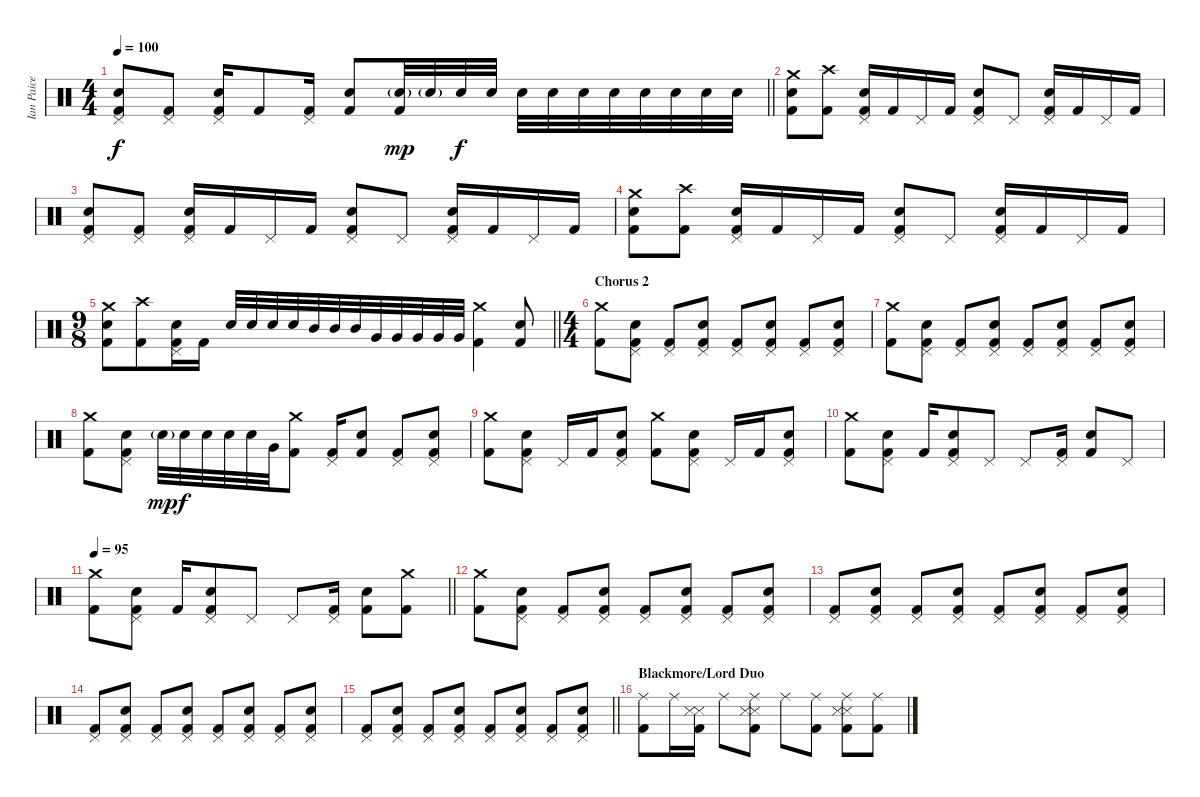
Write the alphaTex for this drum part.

\track ("Ian Paice - Drums" "Ian Paice ") {instrument percussion}
\staff {score}
\articulation defaults
\ts (4 4)
\tempo 100
\clef neutral
\barLineRight lightlight
\ks c
("Kick (hit) 2" "Pedal Hi-Hat (hit)" "Electric Snare (hit)").8{dy f} ("Kick (hit) 2" "Pedal Hi-Hat (hit)").8 ("Kick (hit) 2" "Pedal Hi-Hat (hit)" "Electric Snare (hit)").16 "Kick (hit) 2".8 ("Kick (hit) 2" "Pedal Hi-Hat (hit)").16 ("Kick (hit) 2" "Electric Snare (hit)").8 ("Kick (hit) 2" "Electric Snare (hit)"{g}).32{dy mp} "Electric Snare (hit)"{g}.32 "Electric Snare (hit)".32{dy f} "Electric Snare (hit)".32 "Electric Snare (hit)".32 "Electric Snare (hit)".32 "Electric Snare (hit)".32 "Electric Snare (hit)".32 "Electric Snare (hit)".32 "Electric Snare (hit)".32 "Electric Snare (hit)".32 "Electric Snare (hit)".32 |
("Kick (hit) 2" "Crash medium (hit)" "Electric Snare (hit)").8 ("Kick (hit) 2" "Crash high (hit)").8 ("Kick (hit) 2" "Pedal Hi-Hat (hit)" "Electric Snare (hit)").16 "Kick (hit) 2".16 "Pedal Hi-Hat (hit)".16 "Kick (hit) 2".16 ("Kick (hit) 2" "Pedal Hi-Hat (hit)" "Electric Snare (hit)").8 "Pedal Hi-Hat (hit)".8 ("Kick (hit) 2" "Pedal Hi-Hat (hit)" "Electric Snare (hit)").16 "Kick (hit) 2".16 "Pedal Hi-Hat (hit)".16 "Kick (hit) 2".16 |
("Kick (hit) 2" "Pedal Hi-Hat (hit)" "Electric Snare (hit)").8 ("Kick (hit) 2" "Pedal Hi-Hat (hit)").8 ("Kick (hit) 2" "Pedal Hi-Hat (hit)" "Electric Snare (hit)").16 "Kick (hit) 2".16 "Pedal Hi-Hat (hit)".16 "Kick (hit) 2".16 ("Kick (hit) 2" "Pedal Hi-Hat (hit)" "Electric Snare (hit)").8 "Pedal Hi-Hat (hit)".8 ("Kick (hit) 2" "Pedal Hi-Hat (hit)" "Electric Snare (hit)").16 "Kick (hit) 2".16 "Pedal Hi-Hat (hit)".16 "Kick (hit) 2".16 |
("Kick (hit) 2" "Crash medium (hit)" "Electric Snare (hit)").8 ("Kick (hit) 2" "Crash high (hit)").8 ("Kick (hit) 2" "Pedal Hi-Hat (hit)" "Electric Snare (hit)").16 "Kick (hit) 2".16 "Pedal Hi-Hat (hit)".16 "Kick (hit) 2".16 ("Kick (hit) 2" "Pedal Hi-Hat (hit)" "Electric Snare (hit)").8 "Pedal Hi-Hat (hit)".8 ("Kick (hit) 2" "Pedal Hi-Hat (hit)" "Electric Snare (hit)").16 "Kick (hit) 2".16 "Pedal Hi-Hat (hit)".16 "Kick (hit) 2".16 |
\ts (9 8)
\barLineRight lightlight
("Kick (hit) 2" "Crash medium (hit)" "Electric Snare (hit)").8 ("Kick (hit) 2" "Crash high (hit)").8 ("Kick (hit) 2" "Pedal Hi-Hat (hit)" "Electric Snare (hit)").16 "Kick (hit) 2".16 "Electric Snare (hit)".32 "Electric Snare (hit)".32 "Electric Snare (hit)".32 "Electric Snare (hit)".32 "Mid Tom (hit)".32 "Mid Tom (hit)".32 "Mid Tom (hit)".32 "Very Low Tom (hit)".32 "Very Low Tom (hit)".32 "Very Low Tom (hit)".32 "Very Low Tom (hit)".32 "Very Low Tom (hit)".32 ("Kick (hit) 2" "Crash medium (hit)").4 ("Kick (hit) 2" "Electric Snare (hit)").8 |
\ts (4 4)
\section ("" "Chorus 2")
("Kick (hit) 2" "Crash medium (hit)").8 ("Kick (hit) 2" "Pedal Hi-Hat (hit)" "Electric Snare (hit)").8 ("Kick (hit) 2" "Pedal Hi-Hat (hit)").8 ("Kick (hit) 2" "Pedal Hi-Hat (hit)" "Electric Snare (hit)").8 ("Kick (hit) 2" "Pedal Hi-Hat (hit)").8 ("Kick (hit) 2" "Pedal Hi-Hat (hit)" "Electric Snare (hit)").8 ("Kick (hit) 2" "Pedal Hi-Hat (hit)").8 ("Kick (hit) 2" "Pedal Hi-Hat (hit)" "Electric Snare (hit)").8 |
("Kick (hit) 2" "Crash medium (hit)").8 ("Kick (hit) 2" "Pedal Hi-Hat (hit)" "Electric Snare (hit)").8 ("Kick (hit) 2" "Pedal Hi-Hat (hit)").8 ("Kick (hit) 2" "Pedal Hi-Hat (hit)" "Electric Snare (hit)").8 ("Kick (hit) 2" "Pedal Hi-Hat (hit)").8 ("Kick (hit) 2" "Pedal Hi-Hat (hit)" "Electric Snare (hit)").8 ("Kick (hit) 2" "Pedal Hi-Hat (hit)").8 ("Kick (hit) 2" "Pedal Hi-Hat (hit)" "Electric Snare (hit)").8 |
("Kick (hit) 2" "Crash medium (hit)").8 ("Kick (hit) 2" "Pedal Hi-Hat (hit)" "Electric Snare (hit)").8 "Electric Snare (hit)"{g}.32{dy mp} "Electric Snare (hit)".32{dy f} "Electric Snare (hit)".32 "Electric Snare (hit)".32 "Electric Snare (hit)".32 "Very Low Tom (hit)".32 ("Kick (hit) 2" "Crash medium (hit)").8 ("Kick (hit) 2" "Pedal Hi-Hat (hit)").16 ("Kick (hit) 2" "Electric Snare (hit)").8 ("Kick (hit) 2" "Pedal Hi-Hat (hit)").8 ("Kick (hit) 2" "Pedal Hi-Hat (hit)" "Electric Snare (hit)").8 |
("Kick (hit) 2" "Crash medium (hit)").8 ("Kick (hit) 2" "Pedal Hi-Hat (hit)" "Electric Snare (hit)").8 "Pedal Hi-Hat (hit)".16 "Kick (hit) 2".16 ("Kick (hit) 2" "Pedal Hi-Hat (hit)" "Electric Snare (hit)").8 ("Kick (hit) 2" "Crash medium (hit)").8 ("Kick (hit) 2" "Pedal Hi-Hat (hit)" "Electric Snare (hit)").8 "Pedal Hi-Hat (hit)".16 "Kick (hit) 2".16 ("Kick (hit) 2" "Pedal Hi-Hat (hit)" "Electric Snare (hit)").8 |
("Kick (hit) 2" "Crash medium (hit)").8 ("Kick (hit) 2" "Pedal Hi-Hat (hit)" "Electric Snare (hit)").8 "Kick (hit) 2".16 ("Kick (hit) 2" "Pedal Hi-Hat (hit)" "Electric Snare (hit)").8 "Pedal Hi-Hat (hit)".8 "Pedal Hi-Hat (hit)".8 ("Kick (hit) 2" "Pedal Hi-Hat (hit)").16 ("Kick (hit) 2" "Electric Snare (hit)").8 "Pedal Hi-Hat (hit)".8 |
\tempo 95
\barLineRight lightlight
("Kick (hit) 2" "Crash medium (hit)").8 ("Kick (hit) 2" "Pedal Hi-Hat (hit)" "Electric Snare (hit)").8 "Kick (hit) 2".16 ("Kick (hit) 2" "Pedal Hi-Hat (hit)" "Electric Snare (hit)").8 "Pedal Hi-Hat (hit)".8 "Pedal Hi-Hat (hit)".8 ("Kick (hit) 2" "Pedal Hi-Hat (hit)").16 ("Kick (hit) 2" "Electric Snare (hit)").8 ("Kick (hit) 2" "Crash medium (hit)").8 |
("Kick (hit) 2" "Crash medium (hit)").8 ("Kick (hit) 2" "Pedal Hi-Hat (hit)" "Electric Snare (hit)").8 ("Kick (hit) 2" "Pedal Hi-Hat (hit)").8 ("Kick (hit) 2" "Pedal Hi-Hat (hit)" "Electric Snare (hit)").8 ("Kick (hit) 2" "Pedal Hi-Hat (hit)").8 ("Kick (hit) 2" "Pedal Hi-Hat (hit)" "Electric Snare (hit)").8 ("Kick (hit) 2" "Pedal Hi-Hat (hit)").8 ("Kick (hit) 2" "Pedal Hi-Hat (hit)" "Electric Snare (hit)").8 |
("Kick (hit) 2" "Pedal Hi-Hat (hit)").8 ("Kick (hit) 2" "Pedal Hi-Hat (hit)" "Electric Snare (hit)").8 ("Kick (hit) 2" "Pedal Hi-Hat (hit)").8 ("Kick (hit) 2" "Pedal Hi-Hat (hit)" "Electric Snare (hit)").8 ("Kick (hit) 2" "Pedal Hi-Hat (hit)").8 ("Kick (hit) 2" "Pedal Hi-Hat (hit)" "Electric Snare (hit)").8 ("Kick (hit) 2" "Pedal Hi-Hat (hit)").8 ("Kick (hit) 2" "Pedal Hi-Hat (hit)" "Electric Snare (hit)").8 |
("Kick (hit) 2" "Pedal Hi-Hat (hit)").8 ("Kick (hit) 2" "Pedal Hi-Hat (hit)" "Electric Snare (hit)").8 ("Kick (hit) 2" "Pedal Hi-Hat (hit)").8 ("Kick (hit) 2" "Pedal Hi-Hat (hit)" "Electric Snare (hit)").8 ("Kick (hit) 2" "Pedal Hi-Hat (hit)").8 ("Kick (hit) 2" "Pedal Hi-Hat (hit)" "Electric Snare (hit)").8 ("Kick (hit) 2" "Pedal Hi-Hat (hit)").8 ("Kick (hit) 2" "Pedal Hi-Hat (hit)" "Electric Snare (hit)").8 |
\barLineRight lightlight
("Kick (hit) 2" "Pedal Hi-Hat (hit)").8 ("Kick (hit) 2" "Pedal Hi-Hat (hit)" "Electric Snare (hit)").8 ("Kick (hit) 2" "Pedal Hi-Hat (hit)").8 ("Kick (hit) 2" "Pedal Hi-Hat (hit)" "Electric Snare (hit)").8 ("Kick (hit) 2" "Pedal Hi-Hat (hit)").8 ("Kick (hit) 2" "Pedal Hi-Hat (hit)" "Electric Snare (hit)").8 ("Kick (hit) 2" "Pedal Hi-Hat (hit)").8 ("Kick (hit) 2" "Pedal Hi-Hat (hit)" "Electric Snare (hit)").8 |
\section ("" "Blackmore/Lord Duo")
("Kick (hit) 2" "Ride (middle)").8 "Ride (middle)".16 ("Kick (hit) 2" "Snare (side stick) 3" "Metronome (hit)").16 "Ride (middle)".8 ("Kick (hit) 2" "Ride (middle)" "Snare (side stick) 3" "Metronome (hit)").8 "Ride (middle)".8 ("Kick (hit) 2" "Ride (middle)").8 ("Kick (hit) 2" "Ride (middle)" "Metronome (hit)" "Snare (side stick) 3").8 ("Kick (hit) 2" "Ride (middle)").8
